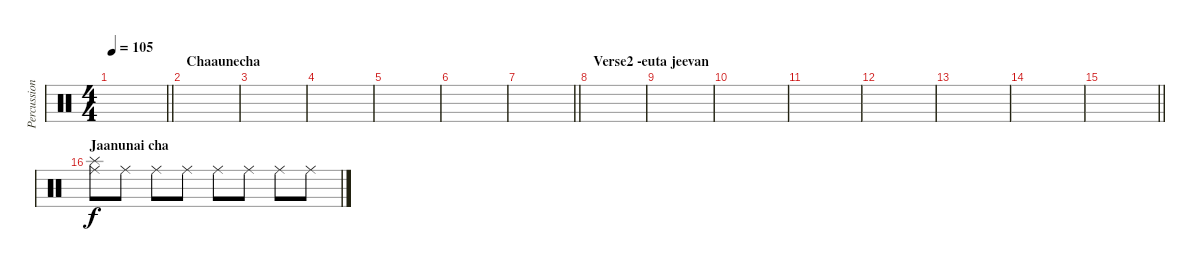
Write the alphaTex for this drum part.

\track ("Percussion" "Percussion") {instrument percussion}
\staff {score}
\articulation defaults
\ts (4 4)
\tempo 105
\clef neutral
\barLineRight lightlight
\ks c
|
\section ("" "Chaaunecha")
|
|
|
|
|
\barLineRight lightlight
|
\section ("" "Verse2 -euta jeevan")
|
|
|
|
|
|
|
\barLineRight lightlight
|
\section ("" "Jaanunai cha")
("Splash (hit)" "Ride (middle)").8 "Ride (middle)".8 "Ride (middle)".8 "Ride (middle)".8 "Ride (middle)".8 "Ride (middle)".8 "Ride (middle)".8 "Ride (middle)".8
